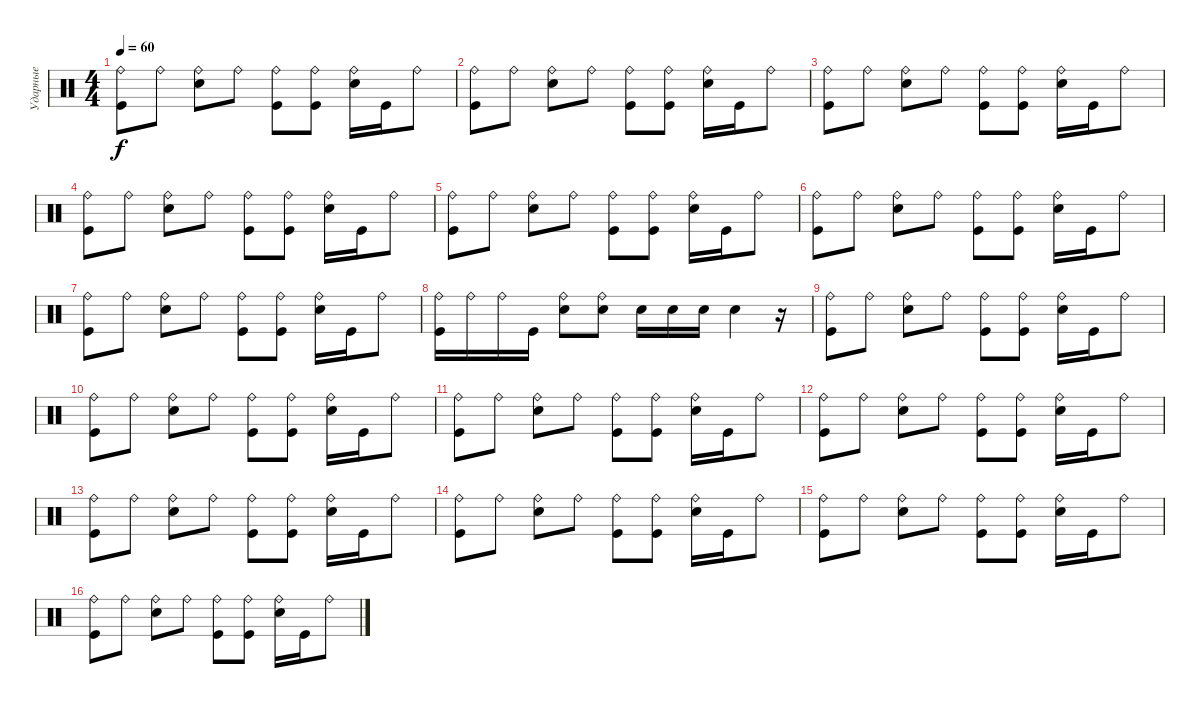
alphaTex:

\track ("Ударные" "Ударные") {instrument percussion}
\staff {score}
\articulation defaults
\ts (4 4)
\tempo 60
\clef neutral
\ks c
("Ride (bell)" "Kick (hit)").8{dy f} "Ride (bell)".8 ("Ride (bell)" "Electric Snare (hit)").8 "Ride (bell)".8 ("Ride (bell)" "Kick (hit)").8 ("Ride (bell)" "Kick (hit)").8 ("Ride (bell)" "Electric Snare (hit)").16 "Kick (hit)".16 "Ride (bell)".8 |
("Ride (bell)" "Kick (hit)").8 "Ride (bell)".8 ("Ride (bell)" "Electric Snare (hit)").8 "Ride (bell)".8 ("Ride (bell)" "Kick (hit)").8 ("Ride (bell)" "Kick (hit)").8 ("Ride (bell)" "Electric Snare (hit)").16 "Kick (hit)".16 "Ride (bell)".8 |
("Ride (bell)" "Kick (hit)").8 "Ride (bell)".8 ("Ride (bell)" "Electric Snare (hit)").8 "Ride (bell)".8 ("Ride (bell)" "Kick (hit)").8 ("Ride (bell)" "Kick (hit)").8 ("Ride (bell)" "Electric Snare (hit)").16 "Kick (hit)".16 "Ride (bell)".8 |
("Ride (bell)" "Kick (hit)").8 "Ride (bell)".8 ("Ride (bell)" "Electric Snare (hit)").8 "Ride (bell)".8 ("Ride (bell)" "Kick (hit)").8 ("Ride (bell)" "Kick (hit)").8 ("Ride (bell)" "Electric Snare (hit)").16 "Kick (hit)".16 "Ride (bell)".8 |
("Ride (bell)" "Kick (hit)").8 "Ride (bell)".8 ("Ride (bell)" "Electric Snare (hit)").8 "Ride (bell)".8 ("Ride (bell)" "Kick (hit)").8 ("Ride (bell)" "Kick (hit)").8 ("Ride (bell)" "Electric Snare (hit)").16 "Kick (hit)".16 "Ride (bell)".8 |
("Ride (bell)" "Kick (hit)").8 "Ride (bell)".8 ("Ride (bell)" "Electric Snare (hit)").8 "Ride (bell)".8 ("Ride (bell)" "Kick (hit)").8 ("Ride (bell)" "Kick (hit)").8 ("Ride (bell)" "Electric Snare (hit)").16 "Kick (hit)".16 "Ride (bell)".8 |
("Ride (bell)" "Kick (hit)").8 "Ride (bell)".8 ("Ride (bell)" "Electric Snare (hit)").8 "Ride (bell)".8 ("Ride (bell)" "Kick (hit)").8 ("Ride (bell)" "Kick (hit)").8 ("Ride (bell)" "Electric Snare (hit)").16 "Kick (hit)".16 "Ride (bell)".8 |
("Ride (bell)" "Kick (hit)").16 "Ride (bell)".16 "Ride (bell)".16 "Kick (hit)".16 ("Ride (bell)" "Electric Snare (hit)").8 ("Ride (bell)" "Electric Snare (hit)").8 "Electric Snare (hit)".16 "Electric Snare (hit)".16 "Electric Snare (hit)".16 "Electric Snare (hit)".4 r.16 |
("Ride (bell)" "Kick (hit)").8 "Ride (bell)".8 ("Ride (bell)" "Electric Snare (hit)").8 "Ride (bell)".8 ("Ride (bell)" "Kick (hit)").8 ("Ride (bell)" "Kick (hit)").8 ("Ride (bell)" "Electric Snare (hit)").16 "Kick (hit)".16 "Ride (bell)".8 |
("Ride (bell)" "Kick (hit)").8 "Ride (bell)".8 ("Ride (bell)" "Electric Snare (hit)").8 "Ride (bell)".8 ("Ride (bell)" "Kick (hit)").8 ("Ride (bell)" "Kick (hit)").8 ("Ride (bell)" "Electric Snare (hit)").16 "Kick (hit)".16 "Ride (bell)".8 |
("Ride (bell)" "Kick (hit)").8 "Ride (bell)".8 ("Ride (bell)" "Electric Snare (hit)").8 "Ride (bell)".8 ("Ride (bell)" "Kick (hit)").8 ("Ride (bell)" "Kick (hit)").8 ("Ride (bell)" "Electric Snare (hit)").16 "Kick (hit)".16 "Ride (bell)".8 |
("Ride (bell)" "Kick (hit)").8 "Ride (bell)".8 ("Ride (bell)" "Electric Snare (hit)").8 "Ride (bell)".8 ("Ride (bell)" "Kick (hit)").8 ("Ride (bell)" "Kick (hit)").8 ("Ride (bell)" "Electric Snare (hit)").16 "Kick (hit)".16 "Ride (bell)".8 |
("Ride (bell)" "Kick (hit)").8 "Ride (bell)".8 ("Ride (bell)" "Electric Snare (hit)").8 "Ride (bell)".8 ("Ride (bell)" "Kick (hit)").8 ("Ride (bell)" "Kick (hit)").8 ("Ride (bell)" "Electric Snare (hit)").16 "Kick (hit)".16 "Ride (bell)".8 |
("Ride (bell)" "Kick (hit)").8 "Ride (bell)".8 ("Ride (bell)" "Electric Snare (hit)").8 "Ride (bell)".8 ("Ride (bell)" "Kick (hit)").8 ("Ride (bell)" "Kick (hit)").8 ("Ride (bell)" "Electric Snare (hit)").16 "Kick (hit)".16 "Ride (bell)".8 |
("Ride (bell)" "Kick (hit)").8 "Ride (bell)".8 ("Ride (bell)" "Electric Snare (hit)").8 "Ride (bell)".8 ("Ride (bell)" "Kick (hit)").8 ("Ride (bell)" "Kick (hit)").8 ("Ride (bell)" "Electric Snare (hit)").16 "Kick (hit)".16 "Ride (bell)".8 |
("Ride (bell)" "Kick (hit)").8 "Ride (bell)".8 ("Ride (bell)" "Electric Snare (hit)").8 "Ride (bell)".8 ("Ride (bell)" "Kick (hit)").8 ("Ride (bell)" "Kick (hit)").8 ("Ride (bell)" "Electric Snare (hit)").16 "Kick (hit)".16 "Ride (bell)".8
